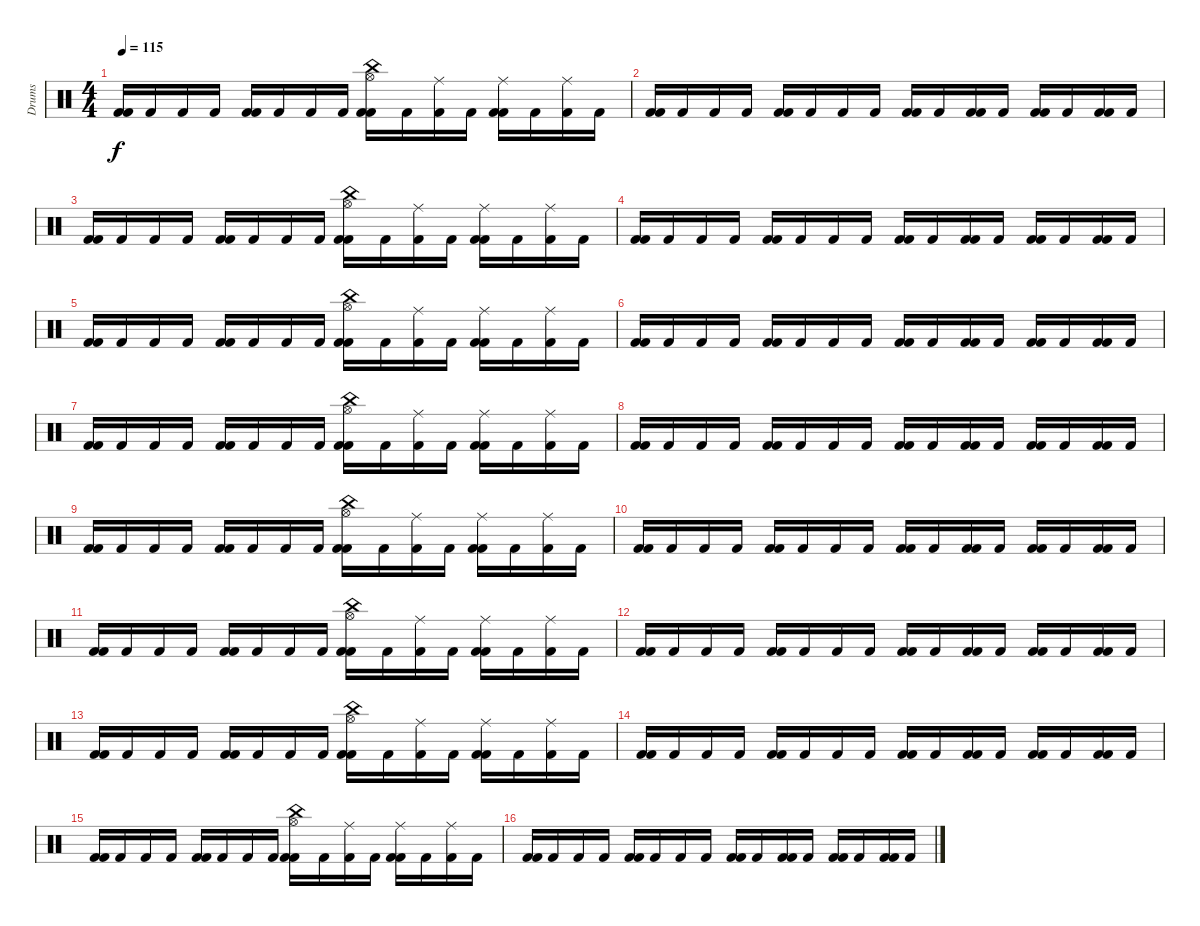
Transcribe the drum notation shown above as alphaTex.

\track ("Drums" "Drums") {instrument percussion}
\staff {score}
\articulation defaults
\ts (4 4)
\tempo 115
\clef neutral
\ks c
("Kick (hit) 2" "Kick (hit) 2").16{dy f} "Kick (hit) 2".16 "Kick (hit) 2".16 "Kick (hit) 2".16 ("Kick (hit) 2" "Kick (hit) 2").16 "Kick (hit) 2".16 "Kick (hit) 2".16 "Kick (hit) 2".16 ("China (hit)" "Kick (hit) 2" "Kick (hit) 2" "Hi-Hat (open)").16 "Kick (hit) 2".16 ("Ride (middle)" "Kick (hit) 2").16 "Kick (hit) 2".16 ("Ride (middle)" "Kick (hit) 2" "Kick (hit) 2").16 "Kick (hit) 2".16 ("Ride (middle)" "Kick (hit) 2").16 "Kick (hit) 2".16 |
("Kick (hit) 2" "Kick (hit) 2").16 "Kick (hit) 2".16 "Kick (hit) 2".16 "Kick (hit) 2".16 ("Kick (hit) 2" "Kick (hit) 2").16 "Kick (hit) 2".16 "Kick (hit) 2".16 "Kick (hit) 2".16 ("Kick (hit) 2" "Kick (hit) 2").16 "Kick (hit) 2".16 ("Kick (hit) 2" "Kick (hit) 2").16 "Kick (hit) 2".16 ("Kick (hit) 2" "Kick (hit) 2").16 "Kick (hit) 2".16 ("Kick (hit) 2" "Kick (hit) 2").16 "Kick (hit) 2".16 |
("Kick (hit) 2" "Kick (hit) 2").16 "Kick (hit) 2".16 "Kick (hit) 2".16 "Kick (hit) 2".16 ("Kick (hit) 2" "Kick (hit) 2").16 "Kick (hit) 2".16 "Kick (hit) 2".16 "Kick (hit) 2".16 ("China (hit)" "Kick (hit) 2" "Kick (hit) 2" "Hi-Hat (open)").16 "Kick (hit) 2".16 ("Ride (middle)" "Kick (hit) 2").16 "Kick (hit) 2".16 ("Ride (middle)" "Kick (hit) 2" "Kick (hit) 2").16 "Kick (hit) 2".16 ("Ride (middle)" "Kick (hit) 2").16 "Kick (hit) 2".16 |
("Kick (hit) 2" "Kick (hit) 2").16 "Kick (hit) 2".16 "Kick (hit) 2".16 "Kick (hit) 2".16 ("Kick (hit) 2" "Kick (hit) 2").16 "Kick (hit) 2".16 "Kick (hit) 2".16 "Kick (hit) 2".16 ("Kick (hit) 2" "Kick (hit) 2").16 "Kick (hit) 2".16 ("Kick (hit) 2" "Kick (hit) 2").16 "Kick (hit) 2".16 ("Kick (hit) 2" "Kick (hit) 2").16 "Kick (hit) 2".16 ("Kick (hit) 2" "Kick (hit) 2").16 "Kick (hit) 2".16 |
("Kick (hit) 2" "Kick (hit) 2").16 "Kick (hit) 2".16 "Kick (hit) 2".16 "Kick (hit) 2".16 ("Kick (hit) 2" "Kick (hit) 2").16 "Kick (hit) 2".16 "Kick (hit) 2".16 "Kick (hit) 2".16 ("China (hit)" "Kick (hit) 2" "Kick (hit) 2" "Hi-Hat (open)").16 "Kick (hit) 2".16 ("Ride (middle)" "Kick (hit) 2").16 "Kick (hit) 2".16 ("Ride (middle)" "Kick (hit) 2" "Kick (hit) 2").16 "Kick (hit) 2".16 ("Ride (middle)" "Kick (hit) 2").16 "Kick (hit) 2".16 |
("Kick (hit) 2" "Kick (hit) 2").16 "Kick (hit) 2".16 "Kick (hit) 2".16 "Kick (hit) 2".16 ("Kick (hit) 2" "Kick (hit) 2").16 "Kick (hit) 2".16 "Kick (hit) 2".16 "Kick (hit) 2".16 ("Kick (hit) 2" "Kick (hit) 2").16 "Kick (hit) 2".16 ("Kick (hit) 2" "Kick (hit) 2").16 "Kick (hit) 2".16 ("Kick (hit) 2" "Kick (hit) 2").16 "Kick (hit) 2".16 ("Kick (hit) 2" "Kick (hit) 2").16 "Kick (hit) 2".16 |
("Kick (hit) 2" "Kick (hit) 2").16 "Kick (hit) 2".16 "Kick (hit) 2".16 "Kick (hit) 2".16 ("Kick (hit) 2" "Kick (hit) 2").16 "Kick (hit) 2".16 "Kick (hit) 2".16 "Kick (hit) 2".16 ("China (hit)" "Kick (hit) 2" "Kick (hit) 2" "Hi-Hat (open)").16 "Kick (hit) 2".16 ("Ride (middle)" "Kick (hit) 2").16 "Kick (hit) 2".16 ("Ride (middle)" "Kick (hit) 2" "Kick (hit) 2").16 "Kick (hit) 2".16 ("Ride (middle)" "Kick (hit) 2").16 "Kick (hit) 2".16 |
("Kick (hit) 2" "Kick (hit) 2").16 "Kick (hit) 2".16 "Kick (hit) 2".16 "Kick (hit) 2".16 ("Kick (hit) 2" "Kick (hit) 2").16 "Kick (hit) 2".16 "Kick (hit) 2".16 "Kick (hit) 2".16 ("Kick (hit) 2" "Kick (hit) 2").16 "Kick (hit) 2".16 ("Kick (hit) 2" "Kick (hit) 2").16 "Kick (hit) 2".16 ("Kick (hit) 2" "Kick (hit) 2").16 "Kick (hit) 2".16 ("Kick (hit) 2" "Kick (hit) 2").16 "Kick (hit) 2".16 |
("Kick (hit) 2" "Kick (hit) 2").16 "Kick (hit) 2".16 "Kick (hit) 2".16 "Kick (hit) 2".16 ("Kick (hit) 2" "Kick (hit) 2").16 "Kick (hit) 2".16 "Kick (hit) 2".16 "Kick (hit) 2".16 ("China (hit)" "Kick (hit) 2" "Kick (hit) 2" "Hi-Hat (open)").16 "Kick (hit) 2".16 ("Ride (middle)" "Kick (hit) 2").16 "Kick (hit) 2".16 ("Ride (middle)" "Kick (hit) 2" "Kick (hit) 2").16 "Kick (hit) 2".16 ("Ride (middle)" "Kick (hit) 2").16 "Kick (hit) 2".16 |
("Kick (hit) 2" "Kick (hit) 2").16 "Kick (hit) 2".16 "Kick (hit) 2".16 "Kick (hit) 2".16 ("Kick (hit) 2" "Kick (hit) 2").16 "Kick (hit) 2".16 "Kick (hit) 2".16 "Kick (hit) 2".16 ("Kick (hit) 2" "Kick (hit) 2").16 "Kick (hit) 2".16 ("Kick (hit) 2" "Kick (hit) 2").16 "Kick (hit) 2".16 ("Kick (hit) 2" "Kick (hit) 2").16 "Kick (hit) 2".16 ("Kick (hit) 2" "Kick (hit) 2").16 "Kick (hit) 2".16 |
("Kick (hit) 2" "Kick (hit) 2").16 "Kick (hit) 2".16 "Kick (hit) 2".16 "Kick (hit) 2".16 ("Kick (hit) 2" "Kick (hit) 2").16 "Kick (hit) 2".16 "Kick (hit) 2".16 "Kick (hit) 2".16 ("China (hit)" "Kick (hit) 2" "Kick (hit) 2" "Hi-Hat (open)").16 "Kick (hit) 2".16 ("Ride (middle)" "Kick (hit) 2").16 "Kick (hit) 2".16 ("Ride (middle)" "Kick (hit) 2" "Kick (hit) 2").16 "Kick (hit) 2".16 ("Ride (middle)" "Kick (hit) 2").16 "Kick (hit) 2".16 |
("Kick (hit) 2" "Kick (hit) 2").16 "Kick (hit) 2".16 "Kick (hit) 2".16 "Kick (hit) 2".16 ("Kick (hit) 2" "Kick (hit) 2").16 "Kick (hit) 2".16 "Kick (hit) 2".16 "Kick (hit) 2".16 ("Kick (hit) 2" "Kick (hit) 2").16 "Kick (hit) 2".16 ("Kick (hit) 2" "Kick (hit) 2").16 "Kick (hit) 2".16 ("Kick (hit) 2" "Kick (hit) 2").16 "Kick (hit) 2".16 ("Kick (hit) 2" "Kick (hit) 2").16 "Kick (hit) 2".16 |
("Kick (hit) 2" "Kick (hit) 2").16 "Kick (hit) 2".16 "Kick (hit) 2".16 "Kick (hit) 2".16 ("Kick (hit) 2" "Kick (hit) 2").16 "Kick (hit) 2".16 "Kick (hit) 2".16 "Kick (hit) 2".16 ("China (hit)" "Kick (hit) 2" "Kick (hit) 2" "Hi-Hat (open)").16 "Kick (hit) 2".16 ("Ride (middle)" "Kick (hit) 2").16 "Kick (hit) 2".16 ("Ride (middle)" "Kick (hit) 2" "Kick (hit) 2").16 "Kick (hit) 2".16 ("Ride (middle)" "Kick (hit) 2").16 "Kick (hit) 2".16 |
("Kick (hit) 2" "Kick (hit) 2").16 "Kick (hit) 2".16 "Kick (hit) 2".16 "Kick (hit) 2".16 ("Kick (hit) 2" "Kick (hit) 2").16 "Kick (hit) 2".16 "Kick (hit) 2".16 "Kick (hit) 2".16 ("Kick (hit) 2" "Kick (hit) 2").16 "Kick (hit) 2".16 ("Kick (hit) 2" "Kick (hit) 2").16 "Kick (hit) 2".16 ("Kick (hit) 2" "Kick (hit) 2").16 "Kick (hit) 2".16 ("Kick (hit) 2" "Kick (hit) 2").16 "Kick (hit) 2".16 |
("Kick (hit) 2" "Kick (hit) 2").16 "Kick (hit) 2".16 "Kick (hit) 2".16 "Kick (hit) 2".16 ("Kick (hit) 2" "Kick (hit) 2").16 "Kick (hit) 2".16 "Kick (hit) 2".16 "Kick (hit) 2".16 ("China (hit)" "Kick (hit) 2" "Kick (hit) 2" "Hi-Hat (open)").16 "Kick (hit) 2".16 ("Ride (middle)" "Kick (hit) 2").16 "Kick (hit) 2".16 ("Ride (middle)" "Kick (hit) 2" "Kick (hit) 2").16 "Kick (hit) 2".16 ("Ride (middle)" "Kick (hit) 2").16 "Kick (hit) 2".16 |
("Kick (hit) 2" "Kick (hit) 2").16 "Kick (hit) 2".16 "Kick (hit) 2".16 "Kick (hit) 2".16 ("Kick (hit) 2" "Kick (hit) 2").16 "Kick (hit) 2".16 "Kick (hit) 2".16 "Kick (hit) 2".16 ("Kick (hit) 2" "Kick (hit) 2").16 "Kick (hit) 2".16 ("Kick (hit) 2" "Kick (hit) 2").16 "Kick (hit) 2".16 ("Kick (hit) 2" "Kick (hit) 2").16 "Kick (hit) 2".16 ("Kick (hit) 2" "Kick (hit) 2").16 "Kick (hit) 2".16
